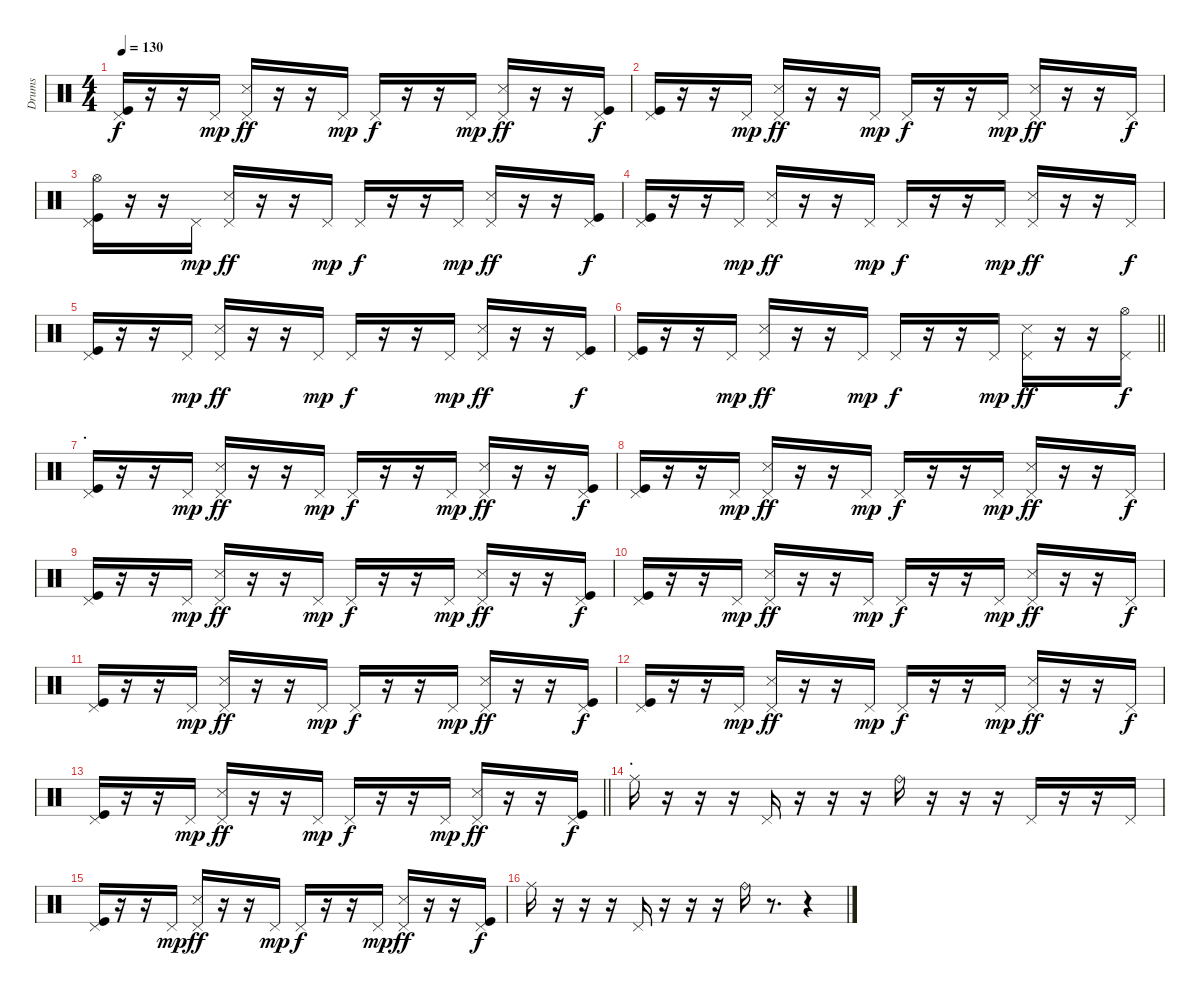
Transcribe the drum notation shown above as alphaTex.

\track ("Drums" "Drums") {instrument percussion}
\staff {score}
\articulation defaults
\ts (4 4)
\tempo 130
\clef neutral
\ks c
("Pedal Hi-Hat (hit)" "Kick (hit)").16{dy f} r.16 r.16 "Pedal Hi-Hat (hit)".16{dy mp} ("Pedal Hi-Hat (hit)" "Snare (side stick) 3").16{dy ff} r.16 r.16 "Pedal Hi-Hat (hit)".16{dy mp} "Pedal Hi-Hat (hit)".16{dy f} r.16 r.16 "Pedal Hi-Hat (hit)".16{dy mp} ("Pedal Hi-Hat (hit)" "Snare (side stick) 3").16{dy ff} r.16 r.16 ("Pedal Hi-Hat (hit)" "Kick (hit)").16{dy f} |
("Pedal Hi-Hat (hit)" "Kick (hit)").16 r.16 r.16 "Pedal Hi-Hat (hit)".16{dy mp} ("Pedal Hi-Hat (hit)" "Snare (side stick) 3").16{dy ff} r.16 r.16 "Pedal Hi-Hat (hit)".16{dy mp} "Pedal Hi-Hat (hit)".16{dy f} r.16 r.16 "Pedal Hi-Hat (hit)".16{dy mp} ("Pedal Hi-Hat (hit)" "Snare (side stick) 3").16{dy ff} r.16 r.16 "Pedal Hi-Hat (hit)".16{dy f} |
("Pedal Hi-Hat (hit)" "Hi-Hat (open)" "Kick (hit)").16 r.16 r.16 "Pedal Hi-Hat (hit)".16{dy mp} ("Pedal Hi-Hat (hit)" "Snare (side stick) 3").16{dy ff} r.16 r.16 "Pedal Hi-Hat (hit)".16{dy mp} "Pedal Hi-Hat (hit)".16{dy f} r.16 r.16 "Pedal Hi-Hat (hit)".16{dy mp} ("Pedal Hi-Hat (hit)" "Snare (side stick) 3").16{dy ff} r.16 r.16 ("Pedal Hi-Hat (hit)" "Kick (hit)").16{dy f} |
("Pedal Hi-Hat (hit)" "Kick (hit)").16 r.16 r.16 "Pedal Hi-Hat (hit)".16{dy mp} ("Pedal Hi-Hat (hit)" "Snare (side stick) 3").16{dy ff} r.16 r.16 "Pedal Hi-Hat (hit)".16{dy mp} "Pedal Hi-Hat (hit)".16{dy f} r.16 r.16 "Pedal Hi-Hat (hit)".16{dy mp} ("Pedal Hi-Hat (hit)" "Snare (side stick) 3").16{dy ff} r.16 r.16 "Pedal Hi-Hat (hit)".16{dy f} |
("Pedal Hi-Hat (hit)" "Kick (hit)").16 r.16 r.16 "Pedal Hi-Hat (hit)".16{dy mp} ("Pedal Hi-Hat (hit)" "Snare (side stick) 3").16{dy ff} r.16 r.16 "Pedal Hi-Hat (hit)".16{dy mp} "Pedal Hi-Hat (hit)".16{dy f} r.16 r.16 "Pedal Hi-Hat (hit)".16{dy mp} ("Pedal Hi-Hat (hit)" "Snare (side stick) 3").16{dy ff} r.16 r.16 ("Pedal Hi-Hat (hit)" "Kick (hit)").16{dy f} |
\barLineRight lightlight
("Pedal Hi-Hat (hit)" "Kick (hit)").16 r.16 r.16 "Pedal Hi-Hat (hit)".16{dy mp} ("Pedal Hi-Hat (hit)" "Snare (side stick) 3").16{dy ff} r.16 r.16 "Pedal Hi-Hat (hit)".16{dy mp} "Pedal Hi-Hat (hit)".16{dy f} r.16 r.16 "Pedal Hi-Hat (hit)".16{dy mp} ("Pedal Hi-Hat (hit)" "Snare (side stick) 3").16{dy ff} r.16 r.16 ("Pedal Hi-Hat (hit)" "Hi-Hat (open)").16{dy f} |
\section ("" ".")
("Pedal Hi-Hat (hit)" "Kick (hit)").16 r.16 r.16 "Pedal Hi-Hat (hit)".16{dy mp} ("Pedal Hi-Hat (hit)" "Snare (side stick) 3").16{dy ff} r.16 r.16 "Pedal Hi-Hat (hit)".16{dy mp} "Pedal Hi-Hat (hit)".16{dy f} r.16 r.16 "Pedal Hi-Hat (hit)".16{dy mp} ("Pedal Hi-Hat (hit)" "Snare (side stick) 3").16{dy ff} r.16 r.16 ("Pedal Hi-Hat (hit)" "Kick (hit)").16{dy f} |
("Pedal Hi-Hat (hit)" "Kick (hit)").16 r.16 r.16 "Pedal Hi-Hat (hit)".16{dy mp} ("Pedal Hi-Hat (hit)" "Snare (side stick) 3").16{dy ff} r.16 r.16 "Pedal Hi-Hat (hit)".16{dy mp} "Pedal Hi-Hat (hit)".16{dy f} r.16 r.16 "Pedal Hi-Hat (hit)".16{dy mp} ("Pedal Hi-Hat (hit)" "Snare (side stick) 3").16{dy ff} r.16 r.16 "Pedal Hi-Hat (hit)".16{dy f} |
("Pedal Hi-Hat (hit)" "Kick (hit)").16 r.16 r.16 "Pedal Hi-Hat (hit)".16{dy mp} ("Pedal Hi-Hat (hit)" "Snare (side stick) 3").16{dy ff} r.16 r.16 "Pedal Hi-Hat (hit)".16{dy mp} "Pedal Hi-Hat (hit)".16{dy f} r.16 r.16 "Pedal Hi-Hat (hit)".16{dy mp} ("Pedal Hi-Hat (hit)" "Snare (side stick) 3").16{dy ff} r.16 r.16 ("Pedal Hi-Hat (hit)" "Kick (hit)").16{dy f} |
("Pedal Hi-Hat (hit)" "Kick (hit)").16 r.16 r.16 "Pedal Hi-Hat (hit)".16{dy mp} ("Pedal Hi-Hat (hit)" "Snare (side stick) 3").16{dy ff} r.16 r.16 "Pedal Hi-Hat (hit)".16{dy mp} "Pedal Hi-Hat (hit)".16{dy f} r.16 r.16 "Pedal Hi-Hat (hit)".16{dy mp} ("Pedal Hi-Hat (hit)" "Snare (side stick) 3").16{dy ff} r.16 r.16 "Pedal Hi-Hat (hit)".16{dy f} |
("Pedal Hi-Hat (hit)" "Kick (hit)").16 r.16 r.16 "Pedal Hi-Hat (hit)".16{dy mp} ("Pedal Hi-Hat (hit)" "Snare (side stick) 3").16{dy ff} r.16 r.16 "Pedal Hi-Hat (hit)".16{dy mp} "Pedal Hi-Hat (hit)".16{dy f} r.16 r.16 "Pedal Hi-Hat (hit)".16{dy mp} ("Pedal Hi-Hat (hit)" "Snare (side stick) 3").16{dy ff} r.16 r.16 ("Pedal Hi-Hat (hit)" "Kick (hit)").16{dy f} |
("Pedal Hi-Hat (hit)" "Kick (hit)").16 r.16 r.16 "Pedal Hi-Hat (hit)".16{dy mp} ("Pedal Hi-Hat (hit)" "Snare (side stick) 3").16{dy ff} r.16 r.16 "Pedal Hi-Hat (hit)".16{dy mp} "Pedal Hi-Hat (hit)".16{dy f} r.16 r.16 "Pedal Hi-Hat (hit)".16{dy mp} ("Pedal Hi-Hat (hit)" "Snare (side stick) 3").16{dy ff} r.16 r.16 "Pedal Hi-Hat (hit)".16{dy f} |
\barLineRight lightlight
("Pedal Hi-Hat (hit)" "Kick (hit)").16 r.16 r.16 "Pedal Hi-Hat (hit)".16{dy mp} ("Pedal Hi-Hat (hit)" "Snare (side stick) 3").16{dy ff} r.16 r.16 "Pedal Hi-Hat (hit)".16{dy mp} "Pedal Hi-Hat (hit)".16{dy f} r.16 r.16 "Pedal Hi-Hat (hit)".16{dy mp} ("Pedal Hi-Hat (hit)" "Snare (side stick) 3").16{dy ff} r.16 r.16 ("Pedal Hi-Hat (hit)" "Kick (hit)").16{dy f} |
\section ("" ".")
"Ride (middle)".16 r.16 r.16 r.16 "Pedal Hi-Hat (hit)".16 r.16 r.16 r.16 "Ride (bell)".16 r.16 r.16 r.16 "Pedal Hi-Hat (hit)".16 r.16 r.16 "Pedal Hi-Hat (hit)".16 |
("Pedal Hi-Hat (hit)" "Kick (hit)").16 r.16 r.16 "Pedal Hi-Hat (hit)".16{dy mp} ("Pedal Hi-Hat (hit)" "Snare (side stick) 3").16{dy ff} r.16 r.16 "Pedal Hi-Hat (hit)".16{dy mp} "Pedal Hi-Hat (hit)".16{dy f} r.16 r.16 "Pedal Hi-Hat (hit)".16{dy mp} ("Pedal Hi-Hat (hit)" "Snare (side stick) 3").16{dy ff} r.16 r.16 ("Pedal Hi-Hat (hit)" "Kick (hit)").16{dy f} |
"Ride (middle)".16 r.16 r.16 r.16 "Pedal Hi-Hat (hit)".16 r.16 r.16 r.16 "Ride (bell)".16 r.8{d} r.4
